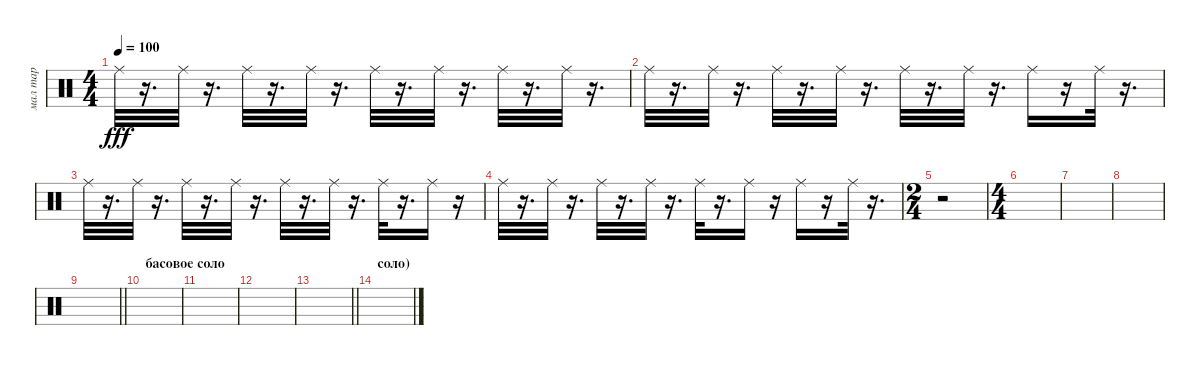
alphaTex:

\track ("мал тар" "мал тар") {instrument percussion}
\staff {score}
\articulation defaults
\ts (4 4)
\tempo 100
\clef neutral
\ks c "Ride (middle)".32{dy fff}
r.16{d} "Ride (middle)".32 r.16{d} "Ride (middle)".32 r.16{d} "Ride (middle)".32 r.16{d} "Ride (middle)".32 r.16{d} "Ride (middle)".32 r.16{d} "Ride (middle)".32 r.16{d} "Ride (middle)".32 r.16{d} |
"Ride (middle)".32 r.16{d} "Ride (middle)".32 r.16{d} "Ride (middle)".32 r.16{d} "Ride (middle)".32 r.16{d} "Ride (middle)".32 r.16{d} "Ride (middle)".32 r.16{d} "Ride (middle)".16 r.16 "Ride (middle)".32 r.16{d} |
"Ride (middle)".32 r.16{d} "Ride (middle)".32 r.16{d} "Ride (middle)".32 r.16{d} "Ride (middle)".32 r.16{d} "Ride (middle)".32 r.16{d} "Ride (middle)".32 r.16{d} "Ride (middle)".32 r.16{d} "Ride (middle)".16 r.16 |
"Ride (middle)".32 r.16{d} "Ride (middle)".32 r.16{d} "Ride (middle)".32 r.16{d} "Ride (middle)".32 r.16{d} "Ride (middle)".32 r.16{d} "Ride (middle)".16 r.16 "Ride (middle)".16 r.16 "Ride (middle)".32 r.16{d} |
\ts (2 4)
r.2 |
\ts (4 4)
|
|
|
\barLineRight lightlight
|
\section ("" "басовое соло")
|
|
|
\barLineRight lightlight
|
\section ("" "соло)")
